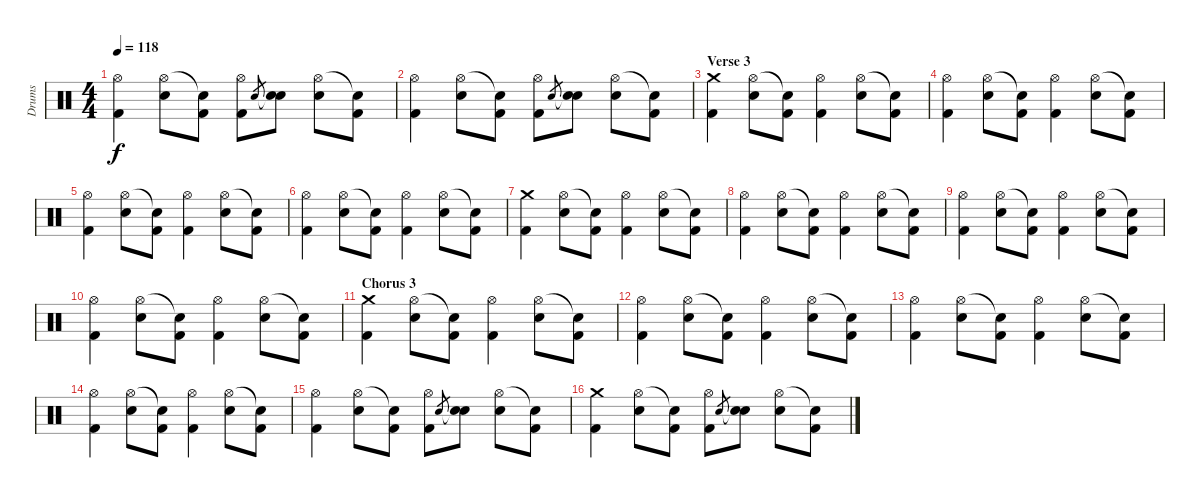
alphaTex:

\track ("Drums" "Drums") {instrument percussion}
\staff {score}
\articulation defaults
\ts (4 4)
\tempo 118
\clef neutral
\ks c
("Hi-Hat (open)" "Kick (hit) 2").4{dy f} ("Hi-Hat (open)" "Electric Snare (hit)").8 ("Snare (hit)"{t} "Kick (hit) 2").8 ("Hi-Hat (open)" "Kick (hit) 2").8 "Electric Snare (hit)".8{gr} ("Snare (hit)"{t} "Electric Snare (hit)").8 ("Hi-Hat (open)" "Electric Snare (hit)").8 ("Snare (hit)"{t} "Kick (hit) 2").8 |
("Hi-Hat (open)" "Kick (hit) 2").4 ("Hi-Hat (open)" "Electric Snare (hit)").8 ("Snare (hit)"{t} "Kick (hit) 2").8 ("Hi-Hat (open)" "Kick (hit) 2").8 "Electric Snare (hit)".8{gr} ("Snare (hit)"{t} "Electric Snare (hit)").8 ("Hi-Hat (open)" "Electric Snare (hit)").8 ("Snare (hit)"{t} "Kick (hit) 2").8 |
\section ("" "Verse 3")
("Crash medium (hit)" "Kick (hit) 2").4 ("Hi-Hat (open)" "Electric Snare (hit)").8 ("Snare (hit)"{t} "Kick (hit) 2").8 ("Hi-Hat (open)" "Kick (hit) 2").4 ("Hi-Hat (open)" "Electric Snare (hit)").8 ("Snare (hit)"{t} "Kick (hit) 2").8 |
("Hi-Hat (open)" "Kick (hit) 2").4 ("Hi-Hat (open)" "Electric Snare (hit)").8 ("Snare (hit)"{t} "Kick (hit) 2").8 ("Hi-Hat (open)" "Kick (hit) 2").4 ("Hi-Hat (open)" "Electric Snare (hit)").8 ("Snare (hit)"{t} "Kick (hit) 2").8 |
("Hi-Hat (open)" "Kick (hit) 2").4 ("Hi-Hat (open)" "Electric Snare (hit)").8 ("Snare (hit)"{t} "Kick (hit) 2").8 ("Hi-Hat (open)" "Kick (hit) 2").4 ("Hi-Hat (open)" "Electric Snare (hit)").8 ("Snare (hit)"{t} "Kick (hit) 2").8 |
("Hi-Hat (open)" "Kick (hit) 2").4 ("Hi-Hat (open)" "Electric Snare (hit)").8 ("Snare (hit)"{t} "Kick (hit) 2").8 ("Hi-Hat (open)" "Kick (hit) 2").4 ("Hi-Hat (open)" "Electric Snare (hit)").8 ("Snare (hit)"{t} "Kick (hit) 2").8 |
("Crash medium (hit)" "Kick (hit) 2").4 ("Hi-Hat (open)" "Electric Snare (hit)").8 ("Snare (hit)"{t} "Kick (hit) 2").8 ("Hi-Hat (open)" "Kick (hit) 2").4 ("Hi-Hat (open)" "Electric Snare (hit)").8 ("Snare (hit)"{t} "Kick (hit) 2").8 |
("Hi-Hat (open)" "Kick (hit) 2").4 ("Hi-Hat (open)" "Electric Snare (hit)").8 ("Snare (hit)"{t} "Kick (hit) 2").8 ("Hi-Hat (open)" "Kick (hit) 2").4 ("Hi-Hat (open)" "Electric Snare (hit)").8 ("Snare (hit)"{t} "Kick (hit) 2").8 |
("Hi-Hat (open)" "Kick (hit) 2").4 ("Hi-Hat (open)" "Electric Snare (hit)").8 ("Snare (hit)"{t} "Kick (hit) 2").8 ("Hi-Hat (open)" "Kick (hit) 2").4 ("Hi-Hat (open)" "Electric Snare (hit)").8 ("Snare (hit)"{t} "Kick (hit) 2").8 |
("Hi-Hat (open)" "Kick (hit) 2").4 ("Hi-Hat (open)" "Electric Snare (hit)").8 ("Snare (hit)"{t} "Kick (hit) 2").8 ("Hi-Hat (open)" "Kick (hit) 2").4 ("Hi-Hat (open)" "Electric Snare (hit)").8 ("Snare (hit)"{t} "Kick (hit) 2").8 |
\section ("" "Chorus 3")
("Crash medium (hit)" "Kick (hit) 2").4 ("Hi-Hat (open)" "Electric Snare (hit)").8 ("Snare (hit)"{t} "Kick (hit) 2").8 ("Hi-Hat (open)" "Kick (hit) 2").4 ("Hi-Hat (open)" "Electric Snare (hit)").8 ("Snare (hit)"{t} "Kick (hit) 2").8 |
("Hi-Hat (open)" "Kick (hit) 2").4 ("Hi-Hat (open)" "Electric Snare (hit)").8 ("Snare (hit)"{t} "Kick (hit) 2").8 ("Hi-Hat (open)" "Kick (hit) 2").4 ("Hi-Hat (open)" "Electric Snare (hit)").8 ("Snare (hit)"{t} "Kick (hit) 2").8 |
("Hi-Hat (open)" "Kick (hit) 2").4 ("Hi-Hat (open)" "Electric Snare (hit)").8 ("Snare (hit)"{t} "Kick (hit) 2").8 ("Hi-Hat (open)" "Kick (hit) 2").4 ("Hi-Hat (open)" "Electric Snare (hit)").8 ("Snare (hit)"{t} "Kick (hit) 2").8 |
("Hi-Hat (open)" "Kick (hit) 2").4 ("Hi-Hat (open)" "Electric Snare (hit)").8 ("Snare (hit)"{t} "Kick (hit) 2").8 ("Hi-Hat (open)" "Kick (hit) 2").4 ("Hi-Hat (open)" "Electric Snare (hit)").8 ("Snare (hit)"{t} "Kick (hit) 2").8 |
("Hi-Hat (open)" "Kick (hit) 2").4 ("Hi-Hat (open)" "Electric Snare (hit)").8 ("Snare (hit)"{t} "Kick (hit) 2").8 ("Hi-Hat (open)" "Kick (hit) 2").8 "Electric Snare (hit)".8{gr} ("Snare (hit)"{t} "Electric Snare (hit)").8 ("Hi-Hat (open)" "Electric Snare (hit)").8 ("Snare (hit)"{t} "Kick (hit) 2").8 |
("Crash medium (hit)" "Kick (hit) 2").4 ("Hi-Hat (open)" "Electric Snare (hit)").8 ("Snare (hit)"{t} "Kick (hit) 2").8 ("Hi-Hat (open)" "Kick (hit) 2").8 "Electric Snare (hit)".8{gr} ("Snare (hit)"{t} "Electric Snare (hit)").8 ("Hi-Hat (open)" "Electric Snare (hit)").8 ("Snare (hit)"{t} "Kick (hit) 2").8
